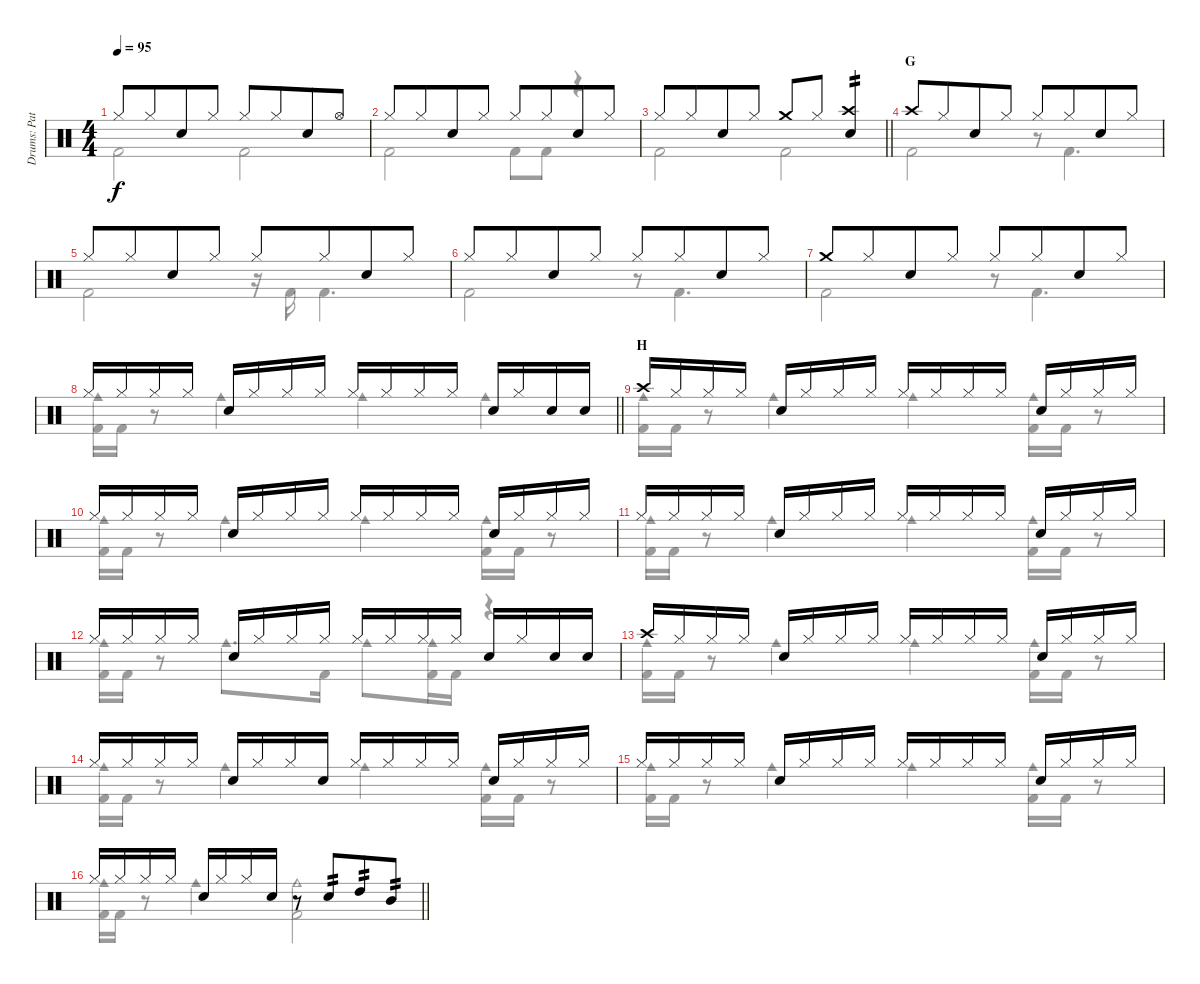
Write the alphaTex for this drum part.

\track ("Drums: Pat" "Drums: Pat") {instrument percussion}
\staff {score}
\articulation defaults
\voice
\ts (4 4)
\tempo 95
\clef neutral
\ks c "Hi-Hat (closed)".8{dy f} "Hi-Hat (closed)".8{beam merge} "Snare (hit) 2".8 "Hi-Hat (closed)".8 "Hi-Hat (closed)".8 "Hi-Hat (closed)".8{beam merge} "Snare (hit) 2".8 "Hi-Hat (open)".8
|
"Hi-Hat (closed)".8 "Hi-Hat (closed)".8{beam merge} "Snare (hit) 2".8 "Hi-Hat (closed)".8 "Hi-Hat (closed)".8 "Hi-Hat (closed)".8{beam merge} "Snare (hit) 2".8 "Hi-Hat (closed)".8 |
\barLineRight lightlight "Hi-Hat (closed)".8 "Hi-Hat (closed)".8{beam merge} "Snare (hit) 2".8 "Hi-Hat (closed)".8 "Crash medium (hit)".8 "Hi-Hat (closed)".8{beam merge}
("Crash high (hit)" "Snare (hit) 2").4{tp 2} |
\section ("" "G")
"Crash high (hit)".8 "Hi-Hat (closed)".8{beam merge} "Snare (hit) 2".8 "Hi-Hat (closed)".8 "Hi-Hat (closed)".8 "Hi-Hat (closed)".8{beam merge} "Snare (hit) 2".8 "Hi-Hat (closed)".8 |
"Hi-Hat (closed)".8 "Hi-Hat (closed)".8{beam merge} "Snare (hit) 2".8 "Hi-Hat (closed)".8 "Hi-Hat (closed)".8 "Hi-Hat (closed)".8{beam merge} "Snare (hit) 2".8 "Hi-Hat (closed)".8 |
"Hi-Hat (closed)".8 "Hi-Hat (closed)".8{beam merge} "Snare (hit) 2".8 "Hi-Hat (closed)".8 "Hi-Hat (closed)".8 "Hi-Hat (closed)".8{beam merge} "Snare (hit) 2".8 "Hi-Hat (closed)".8 |
"Crash medium (hit)".8 "Hi-Hat (closed)".8{beam merge} "Snare (hit) 2".8 "Hi-Hat (closed)".8 "Hi-Hat (closed)".8 "Hi-Hat (closed)".8{beam merge} "Snare (hit) 2".8 "Hi-Hat (closed)".8 |
\barLineRight lightlight "Hi-Hat (closed)".16 "Hi-Hat (closed)".16 "Hi-Hat (closed)".16 "Hi-Hat (closed)".16 "Snare (hit) 2".16 "Hi-Hat (closed)".16 "Hi-Hat (closed)".16 "Hi-Hat (closed)".16 "Hi-Hat (closed)".16 "Hi-Hat (closed)".16 "Hi-Hat (closed)".16 "Hi-Hat (closed)".16 "Snare (hit) 2".16 "Hi-Hat (closed)".16 "Snare (hit) 2".16 "Snare (hit) 2".16
|
\section ("" "H")
"Crash high (hit)".16 "Hi-Hat (closed)".16 "Hi-Hat (closed)".16 "Hi-Hat (closed)".16 "Snare (hit) 2".16 "Hi-Hat (closed)".16 "Hi-Hat (closed)".16 "Hi-Hat (closed)".16 "Hi-Hat (closed)".16 "Hi-Hat (closed)".16 "Hi-Hat (closed)".16 "Hi-Hat (closed)".16 "Snare (hit) 2".16 "Hi-Hat (closed)".16 "Hi-Hat (closed)".16 "Hi-Hat (closed)".16 |
"Hi-Hat (closed)".16 "Hi-Hat (closed)".16 "Hi-Hat (closed)".16 "Hi-Hat (closed)".16 "Snare (hit) 2".16 "Hi-Hat (closed)".16 "Hi-Hat (closed)".16 "Hi-Hat (closed)".16 "Hi-Hat (closed)".16 "Hi-Hat (closed)".16 "Hi-Hat (closed)".16 "Hi-Hat (closed)".16 "Snare (hit) 2".16 "Hi-Hat (closed)".16 "Hi-Hat (closed)".16 "Hi-Hat (closed)".16 |
"Hi-Hat (closed)".16 "Hi-Hat (closed)".16 "Hi-Hat (closed)".16 "Hi-Hat (closed)".16 "Snare (hit) 2".16 "Hi-Hat (closed)".16 "Hi-Hat (closed)".16 "Hi-Hat (closed)".16 "Hi-Hat (closed)".16 "Hi-Hat (closed)".16 "Hi-Hat (closed)".16 "Hi-Hat (closed)".16 "Snare (hit) 2".16 "Hi-Hat (closed)".16 "Hi-Hat (closed)".16 "Hi-Hat (closed)".16 |
"Hi-Hat (closed)".16 "Hi-Hat (closed)".16 "Hi-Hat (closed)".16 "Hi-Hat (closed)".16 "Snare (hit) 2".16 "Hi-Hat (closed)".16 "Hi-Hat (closed)".16 "Hi-Hat (closed)".16 "Hi-Hat (closed)".16 "Hi-Hat (closed)".16 "Hi-Hat (closed)".16 "Hi-Hat (closed)".16 "Snare (hit) 2".16 "Hi-Hat (closed)".16 "Snare (hit) 2".16 "Snare (hit) 2".16 |
"Crash high (hit)".16 "Hi-Hat (closed)".16 "Hi-Hat (closed)".16 "Hi-Hat (closed)".16 "Snare (hit) 2".16 "Hi-Hat (closed)".16 "Hi-Hat (closed)".16 "Hi-Hat (closed)".16 "Hi-Hat (closed)".16 "Hi-Hat (closed)".16 "Hi-Hat (closed)".16 "Hi-Hat (closed)".16 "Snare (hit) 2".16 "Hi-Hat (closed)".16 "Hi-Hat (closed)".16 "Hi-Hat (closed)".16 |
"Hi-Hat (closed)".16 "Hi-Hat (closed)".16 "Hi-Hat (closed)".16 "Hi-Hat (closed)".16 "Snare (hit) 2".16 "Hi-Hat (closed)".16 "Hi-Hat (closed)".16 "Snare (hit) 2".16 "Hi-Hat (closed)".16 "Hi-Hat (closed)".16 "Hi-Hat (closed)".16 "Hi-Hat (closed)".16 "Snare (hit) 2".16 "Hi-Hat (closed)".16 "Hi-Hat (closed)".16 "Hi-Hat (closed)".16 |
"Hi-Hat (closed)".16 "Hi-Hat (closed)".16 "Hi-Hat (closed)".16 "Hi-Hat (closed)".16 "Snare (hit) 2".16 "Hi-Hat (closed)".16 "Hi-Hat (closed)".16 "Hi-Hat (closed)".16 "Hi-Hat (closed)".16 "Hi-Hat (closed)".16 "Hi-Hat (closed)".16 "Hi-Hat (closed)".16 "Snare (hit) 2".16 "Hi-Hat (closed)".16 "Hi-Hat (closed)".16 "Hi-Hat (closed)".16 |
\barLineRight lightlight "Hi-Hat (closed)".16 "Hi-Hat (closed)".16 "Hi-Hat (closed)".16 "Hi-Hat (closed)".16 "Snare (hit) 2".16 "Hi-Hat (closed)".16 "Hi-Hat (closed)".16 "Snare (hit) 2".16
r.8 "Snare (hit) 2".8{tp 2 beam merge} "High Tom (hit)".8{tp 2} "Mid Tom (hit)".8{tp 2}
\voice
\clef neutral
\ottava regular
\simile none
\ks c "Kick (hit) 2".2{dy f} "Kick (hit) 2".2
|
"Kick (hit) 2".2 "Kick (hit) 2".8 "Kick (hit) 2".8 r.4 |
\barLineRight lightlight "Kick (hit) 2".2 "Kick (hit) 2".2
|
"Kick (hit) 2".2 r.8 "Kick (hit) 2".4{d} |
"Kick (hit) 2".2 r.16 "Kick (hit) 2".16 "Kick (hit) 2".4{d} |
"Kick (hit) 2".2 r.8 "Kick (hit) 2".4{d} |
"Kick (hit) 2".2 r.8 "Kick (hit) 2".4{d} |
\barLineRight lightlight
("Kick (hit) 2" "Cowbell medium (hit)").16 "Kick (hit) 2".16 r.8 "Cowbell medium (hit)".4 "Cowbell medium (hit)".4 "Cowbell medium (hit)".4 |
("Kick (hit) 2" "Cowbell medium (hit)").16 "Kick (hit) 2".16 r.8 "Cowbell medium (hit)".4 "Cowbell medium (hit)".4 ("Kick (hit) 2" "Cowbell medium (hit)").16 "Kick (hit) 2".16 r.8 |
("Kick (hit) 2" "Cowbell medium (hit)").16 "Kick (hit) 2".16 r.8 "Cowbell medium (hit)".4 "Cowbell medium (hit)".4 ("Kick (hit) 2" "Cowbell medium (hit)").16 "Kick (hit) 2".16 r.8 |
("Kick (hit) 2" "Cowbell medium (hit)").16 "Kick (hit) 2".16 r.8 "Cowbell medium (hit)".4 "Cowbell medium (hit)".4 ("Kick (hit) 2" "Cowbell medium (hit)").16 "Kick (hit) 2".16 r.8 |
("Kick (hit) 2" "Cowbell medium (hit)").16 "Kick (hit) 2".16 r.8 "Cowbell medium (hit)".8{d} "Kick (hit) 2".16 "Cowbell medium (hit)".8 ("Kick (hit) 2" "Cowbell medium (hit)").16 "Kick (hit) 2".16 r.4 |
("Kick (hit) 2" "Cowbell medium (hit)").16 "Kick (hit) 2".16 r.8 "Cowbell medium (hit)".4 "Cowbell medium (hit)".4 ("Kick (hit) 2" "Cowbell medium (hit)").16 "Kick (hit) 2".16 r.8 |
("Kick (hit) 2" "Cowbell medium (hit)").16 "Kick (hit) 2".16 r.8 "Cowbell medium (hit)".4 "Cowbell medium (hit)".4 ("Kick (hit) 2" "Cowbell medium (hit)").16 "Kick (hit) 2".16 r.8 |
("Kick (hit) 2" "Cowbell medium (hit)").16 "Kick (hit) 2".16 r.8 "Cowbell medium (hit)".4 "Cowbell medium (hit)".4 ("Kick (hit) 2" "Cowbell medium (hit)").16 "Kick (hit) 2".16 r.8 |
\barLineRight lightlight
("Kick (hit) 2" "Cowbell medium (hit)").16 "Kick (hit) 2".16 r.8 "Cowbell medium (hit)".4 ("Kick (hit) 2" "Cowbell medium (hit)").2
